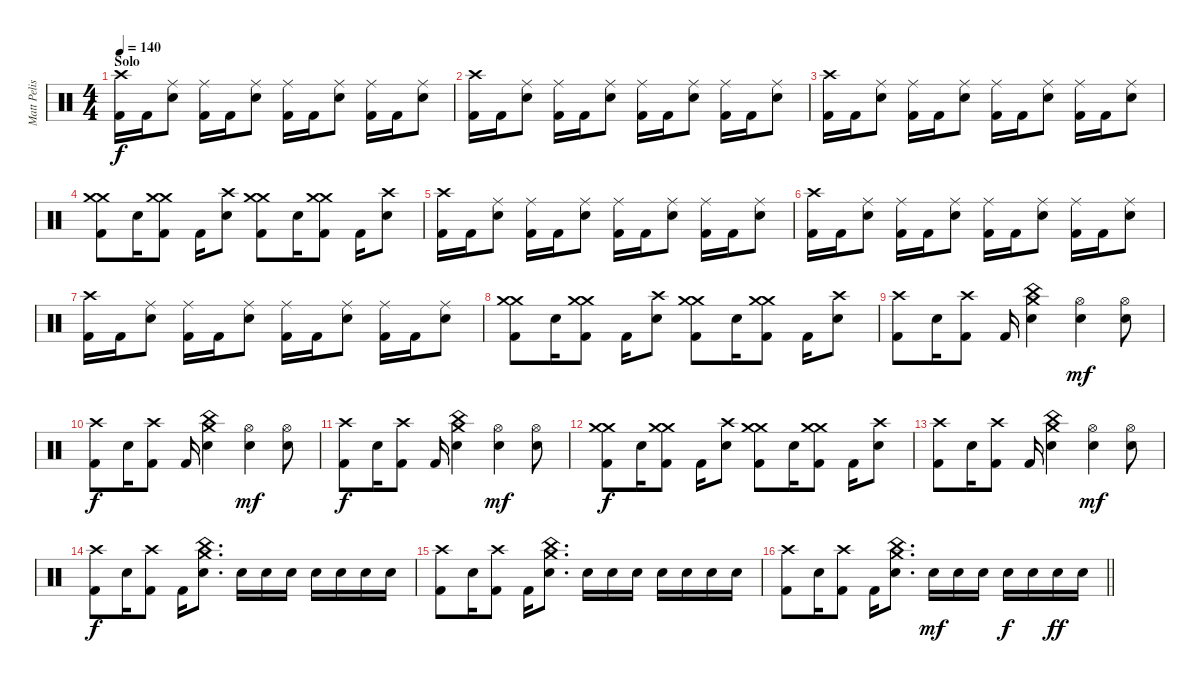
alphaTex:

\track ("Matt Pelissier" "Matt Pelis") {instrument percussion}
\staff {score}
\articulation defaults
\ts (4 4)
\section ("" "Solo")
\tempo 140
\clef neutral
\ks c
("Crash high (hit)" "Kick (hit) 2").16{dy f} "Kick (hit) 2".16 ("Ride (middle)" "Snare (hit) 2").8 ("Ride (middle)" "Kick (hit) 2").16 "Kick (hit) 2".16 ("Ride (middle)" "Snare (hit) 2").8 ("Ride (middle)" "Kick (hit) 2").16 "Kick (hit) 2".16 ("Ride (middle)" "Snare (hit) 2").8 ("Ride (middle)" "Kick (hit) 2").16 "Kick (hit) 2".16 ("Ride (middle)" "Snare (hit) 2").8 |
("Crash high (hit)" "Kick (hit) 2").16 "Kick (hit) 2".16 ("Ride (middle)" "Snare (hit) 2").8 ("Ride (middle)" "Kick (hit) 2").16 "Kick (hit) 2".16 ("Ride (middle)" "Snare (hit) 2").8 ("Ride (middle)" "Kick (hit) 2").16 "Kick (hit) 2".16 ("Ride (middle)" "Snare (hit) 2").8 ("Ride (middle)" "Kick (hit) 2").16 "Kick (hit) 2".16 ("Ride (middle)" "Snare (hit) 2").8 |
("Crash high (hit)" "Kick (hit) 2").16 "Kick (hit) 2".16 ("Ride (middle)" "Snare (hit) 2").8 ("Ride (middle)" "Kick (hit) 2").16 "Kick (hit) 2".16 ("Ride (middle)" "Snare (hit) 2").8 ("Ride (middle)" "Kick (hit) 2").16 "Kick (hit) 2".16 ("Ride (middle)" "Snare (hit) 2").8 ("Ride (middle)" "Kick (hit) 2").16 "Kick (hit) 2".16 ("Ride (middle)" "Snare (hit) 2").8 |
("Crash medium (hit)" "Crash medium (hit)" "Kick (hit) 2").8 "Snare (hit) 2".16 ("Crash medium (hit)" "Crash medium (hit)" "Kick (hit) 2").8 "Kick (hit) 2".16 ("Crash high (hit)" "Snare (hit) 2").8 ("Crash medium (hit)" "Crash medium (hit)" "Kick (hit) 2").8 "Snare (hit) 2".16 ("Crash medium (hit)" "Crash medium (hit)" "Kick (hit) 2").8 "Kick (hit) 2".16 ("Crash high (hit)" "Snare (hit) 2").8 |
("Crash high (hit)" "Kick (hit) 2").16 "Kick (hit) 2".16 ("Ride (middle)" "Snare (hit) 2").8 ("Ride (middle)" "Kick (hit) 2").16 "Kick (hit) 2".16 ("Ride (middle)" "Snare (hit) 2").8 ("Ride (middle)" "Kick (hit) 2").16 "Kick (hit) 2".16 ("Ride (middle)" "Snare (hit) 2").8 ("Ride (middle)" "Kick (hit) 2").16 "Kick (hit) 2".16 ("Ride (middle)" "Snare (hit) 2").8 |
("Crash high (hit)" "Kick (hit) 2").16 "Kick (hit) 2".16 ("Ride (middle)" "Snare (hit) 2").8 ("Ride (middle)" "Kick (hit) 2").16 "Kick (hit) 2".16 ("Ride (middle)" "Snare (hit) 2").8 ("Ride (middle)" "Kick (hit) 2").16 "Kick (hit) 2".16 ("Ride (middle)" "Snare (hit) 2").8 ("Ride (middle)" "Kick (hit) 2").16 "Kick (hit) 2".16 ("Ride (middle)" "Snare (hit) 2").8 |
("Crash high (hit)" "Kick (hit) 2").16 "Kick (hit) 2".16 ("Ride (middle)" "Snare (hit) 2").8 ("Ride (middle)" "Kick (hit) 2").16 "Kick (hit) 2".16 ("Ride (middle)" "Snare (hit) 2").8 ("Ride (middle)" "Kick (hit) 2").16 "Kick (hit) 2".16 ("Ride (middle)" "Snare (hit) 2").8 ("Ride (middle)" "Kick (hit) 2").16 "Kick (hit) 2".16 ("Ride (middle)" "Snare (hit) 2").8 |
("Crash medium (hit)" "Crash medium (hit)" "Kick (hit) 2").8 "Snare (hit) 2".16 ("Crash medium (hit)" "Crash medium (hit)" "Kick (hit) 2").8 "Kick (hit) 2".16 ("Crash high (hit)" "Snare (hit) 2").8 ("Crash medium (hit)" "Crash medium (hit)" "Kick (hit) 2").8 "Snare (hit) 2".16 ("Crash medium (hit)" "Crash medium (hit)" "Kick (hit) 2").8 "Kick (hit) 2".16 ("Crash high (hit)" "Snare (hit) 2").8 |
("Crash high (hit)" "Kick (hit) 2").8 "Snare (hit) 2".16 ("Crash high (hit)" "Kick (hit) 2").8 "Kick (hit) 2".16 ("Crash medium (hit)" "China (hit)" "Snare (hit) 2").4 ("Hi-Hat (open)" "Snare (hit) 2").4{dy mf} ("Hi-Hat (open)" "Snare (hit) 2").8 |
("Crash high (hit)" "Kick (hit) 2").8{dy f} "Snare (hit) 2".16 ("Crash high (hit)" "Kick (hit) 2").8 "Kick (hit) 2".16 ("Crash medium (hit)" "China (hit)" "Snare (hit) 2").4 ("Hi-Hat (open)" "Snare (hit) 2").4{dy mf} ("Hi-Hat (open)" "Snare (hit) 2").8 |
("Crash high (hit)" "Kick (hit) 2").8{dy f} "Snare (hit) 2".16 ("Crash high (hit)" "Kick (hit) 2").8 "Kick (hit) 2".16 ("Crash medium (hit)" "China (hit)" "Snare (hit) 2").4 ("Hi-Hat (open)" "Snare (hit) 2").4{dy mf} ("Hi-Hat (open)" "Snare (hit) 2").8 |
("Crash medium (hit)" "Crash medium (hit)" "Kick (hit) 2").8{dy f} "Snare (hit) 2".16 ("Crash medium (hit)" "Crash medium (hit)" "Kick (hit) 2").8 "Kick (hit) 2".16 ("Crash high (hit)" "Snare (hit) 2").8 ("Crash medium (hit)" "Crash medium (hit)" "Kick (hit) 2").8 "Snare (hit) 2".16 ("Crash medium (hit)" "Crash medium (hit)" "Kick (hit) 2").8 "Kick (hit) 2".16 ("Crash high (hit)" "Snare (hit) 2").8 |
("Crash high (hit)" "Kick (hit) 2").8 "Snare (hit) 2".16 ("Crash high (hit)" "Kick (hit) 2").8 "Kick (hit) 2".16 ("Crash medium (hit)" "China (hit)" "Snare (hit) 2").4 ("Hi-Hat (open)" "Snare (hit) 2").4{dy mf} ("Hi-Hat (open)" "Snare (hit) 2").8 |
("Crash high (hit)" "Kick (hit) 2").8{dy f} "Snare (hit) 2".16 ("Crash high (hit)" "Kick (hit) 2").8 "Kick (hit) 2".16 ("Crash medium (hit)" "China (hit)" "Snare (hit) 2").8{d} "Snare (hit) 2".16 "Snare (hit) 2".16 "Snare (hit) 2".16 "Snare (hit) 2".16 "Snare (hit) 2".16 "Snare (hit) 2".16 "Snare (hit) 2".16 |
("Crash high (hit)" "Kick (hit) 2").8 "Snare (hit) 2".16 ("Crash high (hit)" "Kick (hit) 2").8 "Kick (hit) 2".16 ("Crash medium (hit)" "China (hit)" "Snare (hit) 2").8{d} "Snare (hit) 2".16 "Snare (hit) 2".16 "Snare (hit) 2".16 "Snare (hit) 2".16 "Snare (hit) 2".16 "Snare (hit) 2".16 "Snare (hit) 2".16 |
\barLineRight lightlight
("Crash high (hit)" "Kick (hit) 2").8 "Snare (hit) 2".16 ("Crash high (hit)" "Kick (hit) 2").8 "Kick (hit) 2".16 ("Crash medium (hit)" "China (hit)" "Snare (hit) 2").8{d} "Snare (hit) 2".16{dy mf} "Snare (hit) 2".16 "Snare (hit) 2".16 "Snare (hit) 2".16{dy f} "Snare (hit) 2".16 "Snare (hit) 2".16{dy ff} "Snare (hit) 2".16
